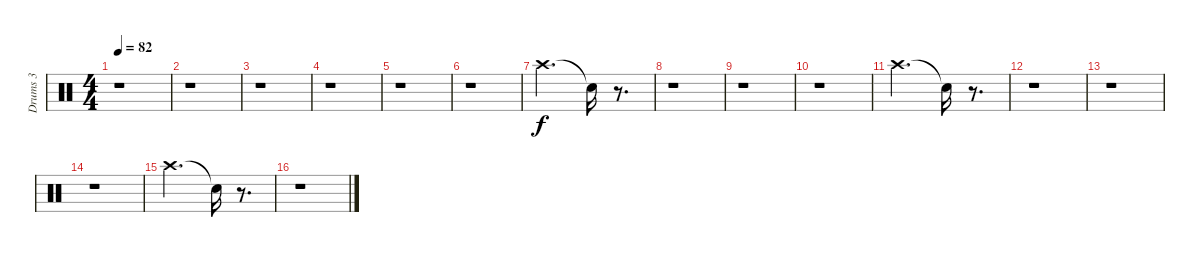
\track ("Drums 3" "Drums 3") {instrument percussion}
\staff {score}
\articulation defaults
\ts (4 4)
\tempo 82
\clef neutral
\ks c
r.1{dy f} |
r.1 |
r.1 |
r.1 |
r.1 |
r.1 |
"Crash high (hit)".2{d} "Snare (hit)"{t}.16 r.8{d} |
r.1 |
r.1 |
r.1 |
"Crash high (hit)".2{d} "Snare (hit)"{t}.16 r.8{d} |
r.1 |
r.1 |
r.1 |
"Crash high (hit)".2{d} "Snare (hit)"{t}.16 r.8{d} |
r.1
